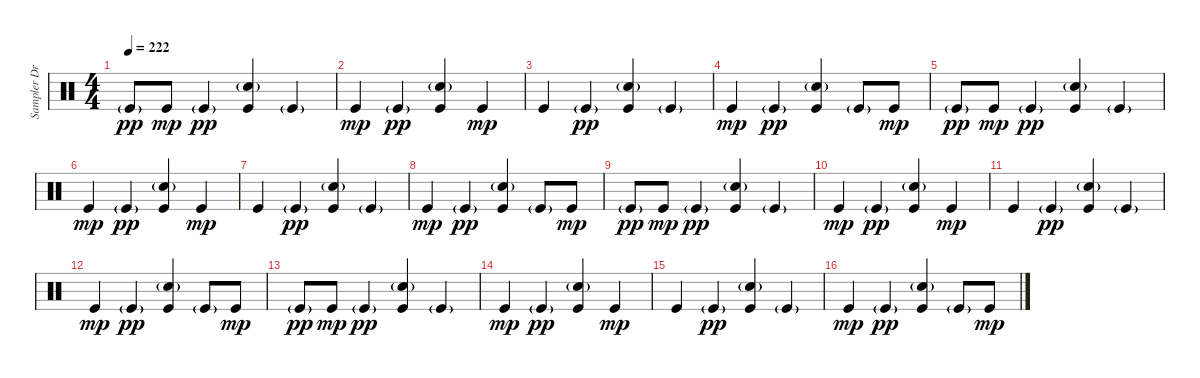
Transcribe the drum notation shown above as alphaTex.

\track ("Sampler Drums 1" "Sampler Dr") {instrument percussion}
\staff {score}
\articulation defaults
\ts (4 4)
\tempo 222
\clef neutral
\ks c "Kick (hit)"{g}.8{dy pp} "Kick (hit)".8{dy mp} "Kick (hit)"{g}.4{dy pp}
("Kick (hit)" "Snare (hit) 2"{g}).4 "Kick (hit)"{g}.4 |
"Kick (hit)".4{dy mp} "Kick (hit)"{g}.4{dy pp} ("Kick (hit)" "Snare (hit) 2"{g}).4 "Kick (hit)".4{dy mp} |
"Kick (hit)".4 "Kick (hit)"{g}.4{dy pp} ("Kick (hit)" "Snare (hit) 2"{g}).4 "Kick (hit)"{g}.4 |
"Kick (hit)".4{dy mp} "Kick (hit)"{g}.4{dy pp} ("Kick (hit)" "Snare (hit) 2"{g}).4 "Kick (hit)"{g}.8 "Kick (hit)".8{dy mp} |
"Kick (hit)"{g}.8{dy pp} "Kick (hit)".8{dy mp} "Kick (hit)"{g}.4{dy pp} ("Kick (hit)" "Snare (hit) 2"{g}).4 "Kick (hit)"{g}.4 |
"Kick (hit)".4{dy mp} "Kick (hit)"{g}.4{dy pp} ("Kick (hit)" "Snare (hit) 2"{g}).4 "Kick (hit)".4{dy mp} |
"Kick (hit)".4 "Kick (hit)"{g}.4{dy pp} ("Kick (hit)" "Snare (hit) 2"{g}).4 "Kick (hit)"{g}.4 |
"Kick (hit)".4{dy mp} "Kick (hit)"{g}.4{dy pp} ("Kick (hit)" "Snare (hit) 2"{g}).4 "Kick (hit)"{g}.8 "Kick (hit)".8{dy mp} |
"Kick (hit)"{g}.8{dy pp} "Kick (hit)".8{dy mp} "Kick (hit)"{g}.4{dy pp} ("Kick (hit)" "Snare (hit) 2"{g}).4 "Kick (hit)"{g}.4 |
"Kick (hit)".4{dy mp} "Kick (hit)"{g}.4{dy pp} ("Kick (hit)" "Snare (hit) 2"{g}).4 "Kick (hit)".4{dy mp} |
"Kick (hit)".4 "Kick (hit)"{g}.4{dy pp} ("Kick (hit)" "Snare (hit) 2"{g}).4 "Kick (hit)"{g}.4 |
"Kick (hit)".4{dy mp} "Kick (hit)"{g}.4{dy pp} ("Kick (hit)" "Snare (hit) 2"{g}).4 "Kick (hit)"{g}.8 "Kick (hit)".8{dy mp} |
"Kick (hit)"{g}.8{dy pp} "Kick (hit)".8{dy mp} "Kick (hit)"{g}.4{dy pp} ("Kick (hit)" "Snare (hit) 2"{g}).4 "Kick (hit)"{g}.4 |
"Kick (hit)".4{dy mp} "Kick (hit)"{g}.4{dy pp} ("Kick (hit)" "Snare (hit) 2"{g}).4 "Kick (hit)".4{dy mp} |
"Kick (hit)".4 "Kick (hit)"{g}.4{dy pp} ("Kick (hit)" "Snare (hit) 2"{g}).4 "Kick (hit)"{g}.4 |
"Kick (hit)".4{dy mp} "Kick (hit)"{g}.4{dy pp} ("Kick (hit)" "Snare (hit) 2"{g}).4 "Kick (hit)"{g}.8 "Kick (hit)".8{dy mp}
